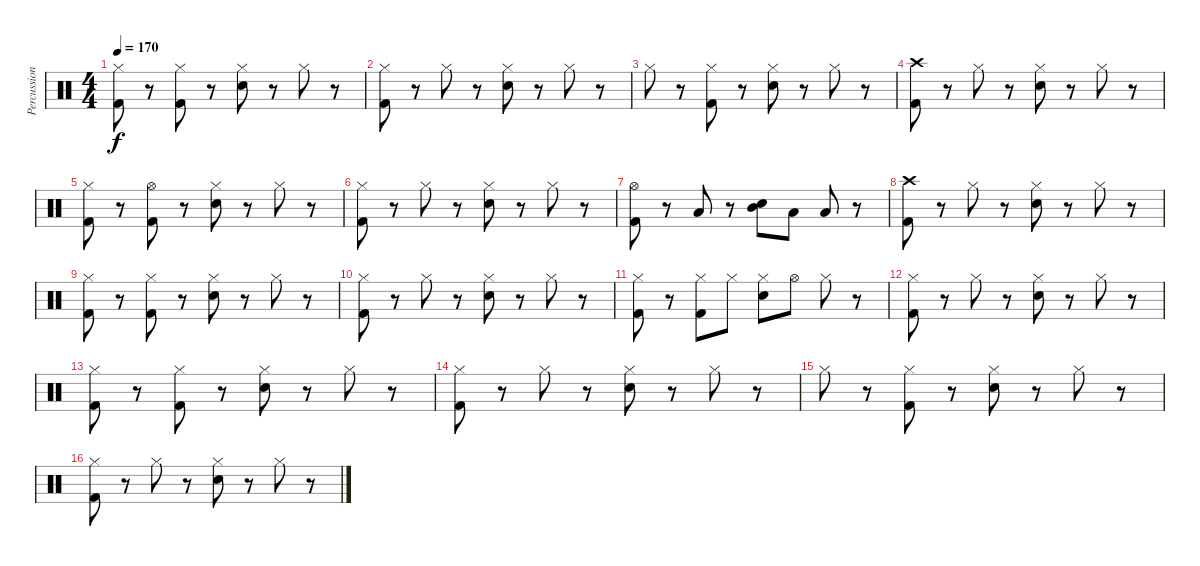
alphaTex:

\track ("Percussion" "Percussion") {instrument percussion}
\staff {score}
\articulation defaults
\ts (4 4)
\tempo 170
\clef neutral
\ks c
("Hi-Hat (closed)" "Kick (hit) 2").8{dy f} r.8 ("Hi-Hat (closed)" "Kick (hit) 2").8 r.8 ("Hi-Hat (closed)" "Electric Snare (hit)").8 r.8 "Hi-Hat (closed)".8 r.8 |
("Hi-Hat (closed)" "Kick (hit) 2").8 r.8 "Hi-Hat (closed)".8 r.8 ("Hi-Hat (closed)" "Electric Snare (hit)").8 r.8 "Hi-Hat (closed)".8 r.8 |
"Hi-Hat (closed)".8 r.8 ("Hi-Hat (closed)" "Kick (hit) 2").8 r.8 ("Hi-Hat (closed)" "Electric Snare (hit)").8 r.8 "Hi-Hat (closed)".8 r.8 |
("Crash high (hit)" "Kick (hit) 2").8 r.8 "Hi-Hat (closed)".8 r.8 ("Hi-Hat (closed)" "Electric Snare (hit)").8 r.8 "Hi-Hat (closed)".8 r.8 |
("Hi-Hat (closed)" "Kick (hit) 2").8 r.8 ("Hi-Hat (open)" "Kick (hit) 2").8 r.8 ("Hi-Hat (closed)" "Electric Snare (hit)").8 r.8 "Hi-Hat (closed)".8 r.8 |
("Hi-Hat (closed)" "Kick (hit) 2").8 r.8 "Hi-Hat (closed)".8 r.8 ("Hi-Hat (closed)" "Electric Snare (hit)").8 r.8 "Hi-Hat (closed)".8 r.8 |
("Hi-Hat (open)" "Kick (hit) 2").8 r.8 "Low Tom (hit)".8 r.8 ("Electric Snare (hit)" "Mid Tom (hit)").8 "Low Tom (hit)".8 "Low Tom (hit)".8 r.8 |
("Crash high (hit)" "Kick (hit) 2").8 r.8 "Hi-Hat (closed)".8 r.8 ("Hi-Hat (closed)" "Electric Snare (hit)").8 r.8 "Hi-Hat (closed)".8 r.8 |
("Hi-Hat (closed)" "Kick (hit) 2").8 r.8 ("Hi-Hat (closed)" "Kick (hit) 2").8 r.8 ("Hi-Hat (closed)" "Electric Snare (hit)").8 r.8 "Hi-Hat (closed)".8 r.8 |
("Hi-Hat (closed)" "Kick (hit) 2").8 r.8 "Hi-Hat (closed)".8 r.8 ("Hi-Hat (closed)" "Electric Snare (hit)").8 r.8 "Hi-Hat (closed)".8 r.8 |
("Hi-Hat (closed)" "Kick (hit) 2").8 r.8 ("Hi-Hat (closed)" "Kick (hit) 2").8 "Hi-Hat (closed)".8 ("Hi-Hat (closed)" "Electric Snare (hit)").8 "Hi-Hat (open)".8 "Hi-Hat (closed)".8 r.8 |
("Hi-Hat (closed)" "Kick (hit) 2").8 r.8 "Hi-Hat (closed)".8 r.8 ("Hi-Hat (closed)" "Electric Snare (hit)").8 r.8 "Hi-Hat (closed)".8 r.8 |
("Hi-Hat (closed)" "Kick (hit) 2").8 r.8 ("Hi-Hat (closed)" "Kick (hit) 2").8 r.8 ("Hi-Hat (closed)" "Electric Snare (hit)").8 r.8 "Hi-Hat (closed)".8 r.8 |
("Hi-Hat (closed)" "Kick (hit) 2").8 r.8 "Hi-Hat (closed)".8 r.8 ("Hi-Hat (closed)" "Electric Snare (hit)").8 r.8 "Hi-Hat (closed)".8 r.8 |
"Hi-Hat (closed)".8 r.8 ("Hi-Hat (closed)" "Kick (hit) 2").8 r.8 ("Hi-Hat (closed)" "Electric Snare (hit)").8 r.8 "Hi-Hat (closed)".8 r.8 |
("Hi-Hat (closed)" "Kick (hit) 2").8 r.8 "Hi-Hat (closed)".8 r.8 ("Hi-Hat (closed)" "Electric Snare (hit)").8 r.8 "Hi-Hat (closed)".8 r.8
